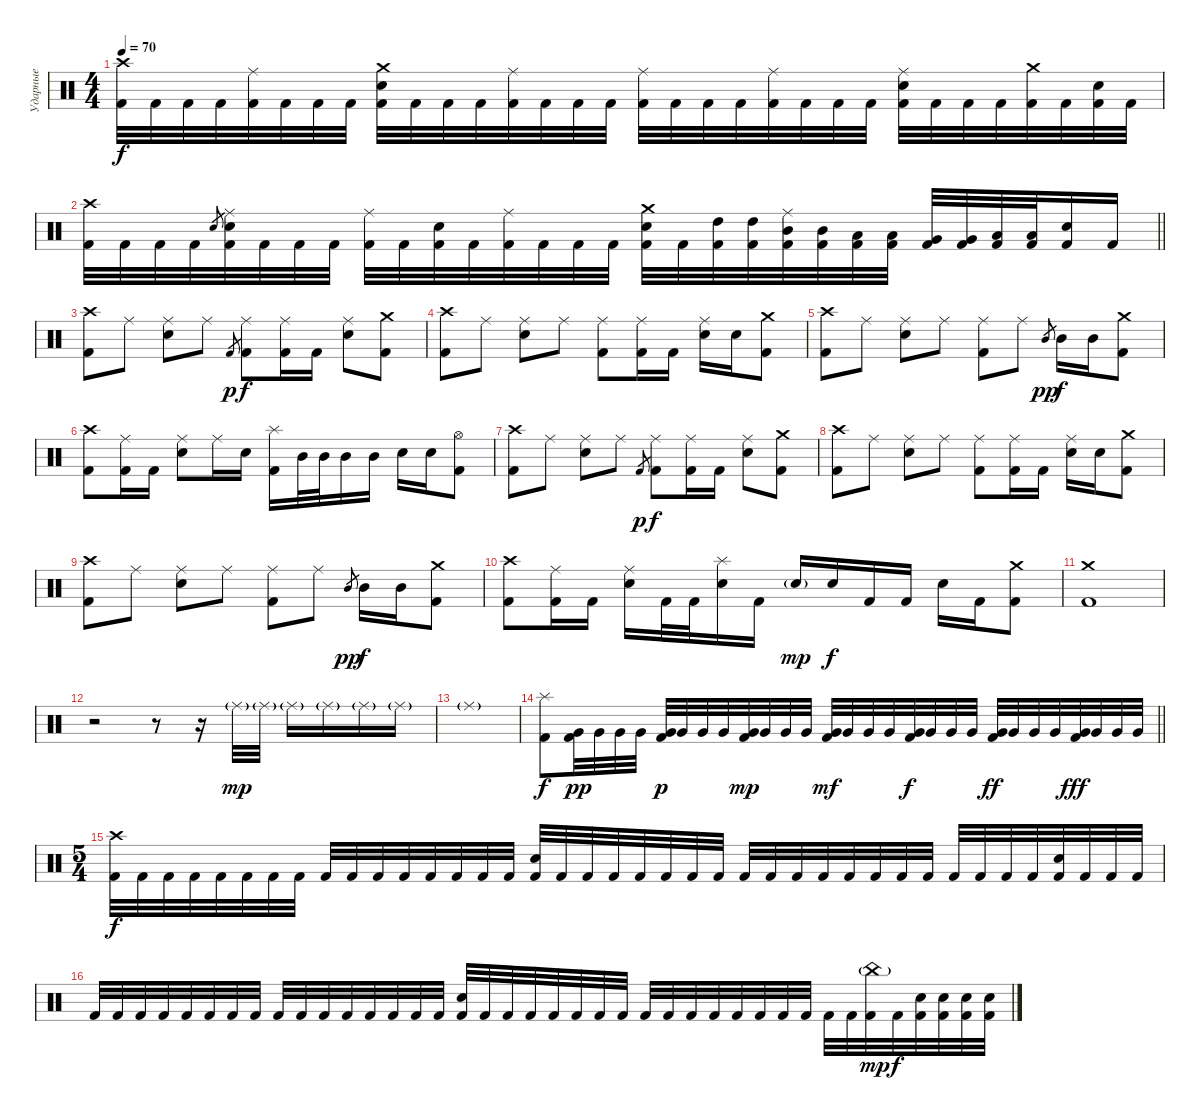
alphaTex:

\track ("Ударные" "Ударные") {instrument percussion}
\staff {score}
\articulation defaults
\ts (4 4)
\tempo 70
\clef neutral
\ks c
("Kick (hit) 2" "Crash high (hit)").32{dy f} "Kick (hit) 2".32 "Kick (hit) 2".32 "Kick (hit) 2".32 ("Kick (hit) 2" "Ride (middle)").32 "Kick (hit) 2".32 "Kick (hit) 2".32 "Kick (hit) 2".32 ("Kick (hit) 2" "Electric Snare (hit)" "Crash medium (hit)").32 "Kick (hit) 2".32 "Kick (hit) 2".32 "Kick (hit) 2".32 ("Kick (hit) 2" "Ride (middle)").32 "Kick (hit) 2".32 "Kick (hit) 2".32 "Kick (hit) 2".32 ("Kick (hit) 2" "Ride (middle)").32 "Kick (hit) 2".32 "Kick (hit) 2".32 "Kick (hit) 2".32 ("Kick (hit) 2" "Ride (middle)").32 "Kick (hit) 2".32 "Kick (hit) 2".32 "Kick (hit) 2".32 ("Kick (hit) 2" "Electric Snare (hit)" "Ride (middle)").32 "Kick (hit) 2".32 "Kick (hit) 2".32 "Kick (hit) 2".32 ("Kick (hit) 2" "Crash medium (hit)").32 "Kick (hit) 2".32 ("Kick (hit) 2" "Electric Snare (hit)").32 "Kick (hit) 2".32 |
\barLineRight lightlight
("Kick (hit) 2" "Crash high (hit)").32 "Kick (hit) 2".32 "Kick (hit) 2".32 "Kick (hit) 2".32 "Electric Snare (hit)".8{gr} ("Kick (hit) 2" "Electric Snare (hit)" "Ride (middle)").32 "Kick (hit) 2".32 "Kick (hit) 2".32 "Kick (hit) 2".32 ("Kick (hit) 2" "Ride (middle)").32 "Kick (hit) 2".32 ("Kick (hit) 2" "Electric Snare (hit)").32 "Kick (hit) 2".32 ("Kick (hit) 2" "Ride (middle)").32 "Kick (hit) 2".32 "Kick (hit) 2".32 "Kick (hit) 2".32 ("Kick (hit) 2" "Electric Snare (hit)" "Crash medium (hit)").32 "Kick (hit) 2".32 ("Kick (hit) 2" "High Tom (hit)").32 ("Kick (hit) 2" "High Tom (hit)").32 ("Kick (hit) 2" "Mid Tom (hit)" "Ride (middle)").32 ("Kick (hit) 2" "Mid Tom (hit)").32 ("Kick (hit) 2" "Low Tom (hit)").32 ("Kick (hit) 2" "Low Tom (hit)").32 ("Kick (hit) 2" "Very Low Tom (hit)").32 ("Kick (hit) 2" "Very Low Tom (hit)").32 ("Kick (hit) 2" "Low Floor Tom (hit)").32 ("Kick (hit) 2" "Low Floor Tom (hit)").32 ("Kick (hit) 2" "Electric Snare (hit)").16 "Kick (hit) 2".16 |
\section ("" "")
("Kick (hit) 2" "Crash high (hit)").8 "Ride (middle)".8 ("Electric Snare (hit)" "Ride (middle)").8 "Ride (middle)".8 "Kick (hit) 2".8{gr dy p} ("Kick (hit) 2" "Ride (middle)").8{dy f} ("Ride (middle)" "Kick (hit) 2").16 "Kick (hit) 2".16 ("Ride (middle)" "Electric Snare (hit)").8 ("Kick (hit) 2" "Crash medium (hit)").8 |
("Kick (hit) 2" "Crash high (hit)").8 "Ride (middle)".8 ("Electric Snare (hit)" "Ride (middle)").8 "Ride (middle)".8 ("Kick (hit) 2" "Ride (middle)").8 ("Ride (middle)" "Kick (hit) 2").16 "Kick (hit) 2".16 ("Ride (middle)" "Electric Snare (hit)").16 "Electric Snare (hit)".16 ("Kick (hit) 2" "Crash medium (hit)").8 |
("Kick (hit) 2" "Crash high (hit)").8 "Ride (middle)".8 ("Ride (middle)" "Electric Snare (hit)").8 "Ride (middle)".8 ("Ride (middle)" "Kick (hit) 2").8 "Ride (middle)".8 "Mid Tom (hit)".8{gr dy pp} "Mid Tom (hit)".16{dy f} "Mid Tom (hit)".16 ("Kick (hit) 2" "Crash medium (hit)").8 |
("Kick (hit) 2" "Crash high (hit)").8 ("Ride (middle)" "Kick (hit) 2").16 "Kick (hit) 2".16 ("Electric Snare (hit)" "Ride (middle)").8 "Ride (middle)".16 "Electric Snare (hit)".16 ("Kick (hit) 2" "Splash (hit)").16 "Mid Tom (hit)".32 "Mid Tom (hit)".32 "Mid Tom (hit)".16 "Mid Tom (hit)".16 "Electric Snare (hit)".16 "Electric Snare (hit)".16 ("Kick (hit) 2" "Hi-Hat (open)").8 |
("Kick (hit) 2" "Crash high (hit)").8 "Ride (middle)".8 ("Electric Snare (hit)" "Ride (middle)").8 "Ride (middle)".8 "Kick (hit) 2".8{gr dy p} ("Kick (hit) 2" "Ride (middle)").8{dy f} ("Ride (middle)" "Kick (hit) 2").16 "Kick (hit) 2".16 ("Ride (middle)" "Electric Snare (hit)").8 ("Kick (hit) 2" "Crash medium (hit)").8 |
("Kick (hit) 2" "Crash high (hit)").8 "Ride (middle)".8 ("Electric Snare (hit)" "Ride (middle)").8 "Ride (middle)".8 ("Kick (hit) 2" "Ride (middle)").8 ("Ride (middle)" "Kick (hit) 2").16 "Kick (hit) 2".16 ("Ride (middle)" "Electric Snare (hit)").16 "Electric Snare (hit)".16 ("Kick (hit) 2" "Crash medium (hit)").8 |
("Kick (hit) 2" "Crash high (hit)").8 "Ride (middle)".8 ("Ride (middle)" "Electric Snare (hit)").8 "Ride (middle)".8 ("Ride (middle)" "Kick (hit) 2").8 "Ride (middle)".8 "Mid Tom (hit)".8{gr dy pp} "Mid Tom (hit)".16{dy f} "Mid Tom (hit)".16 ("Kick (hit) 2" "Crash medium (hit)").8 |
("Kick (hit) 2" "Crash high (hit)").8 ("Ride (middle)" "Kick (hit) 2").16 "Kick (hit) 2".16 ("Electric Snare (hit)" "Ride (middle)").16 "Kick (hit) 2".32 "Kick (hit) 2".32 ("Electric Snare (hit)" "Splash (hit)").16 "Kick (hit) 2".16 "Electric Snare (hit)"{g}.16{dy mp} "Electric Snare (hit)".16{dy f} "Kick (hit) 2".16 "Kick (hit) 2".16 "Electric Snare (hit)".16 "Kick (hit) 2".16 ("Kick (hit) 2" "Crash medium (hit)").8 |
("Kick (hit) 2" "Crash medium (hit)").1 |
r.2 r.8 r.16 "Ride (middle)"{g}.32{dy mp} "Ride (middle)"{g}.32 "Ride (middle)"{g}.16 "Ride (middle)"{g}.16 "Ride (middle)"{g}.16 "Ride (middle)"{g}.16 |
"Ride (middle)"{g}.1 |
\barLineRight lightlight
("Kick (hit) 2" "Splash (hit)").8{dy f} ("Very Low Tom (hit)" "Kick (hit) 2").32{dy pp} "Very Low Tom (hit)".32 "Very Low Tom (hit)".32 "Very Low Tom (hit)".32 ("Very Low Tom (hit)" "Kick (hit) 2").32{dy p} "Very Low Tom (hit)".32 "Very Low Tom (hit)".32 "Very Low Tom (hit)".32 ("Very Low Tom (hit)" "Kick (hit) 2").32{dy mp} "Very Low Tom (hit)".32 "Very Low Tom (hit)".32 "Very Low Tom (hit)".32 ("Very Low Tom (hit)" "Kick (hit) 2").32{dy mf} "Very Low Tom (hit)".32 "Very Low Tom (hit)".32 "Very Low Tom (hit)".32 ("Very Low Tom (hit)" "Kick (hit) 2").32{dy f} "Very Low Tom (hit)".32 "Very Low Tom (hit)".32 "Very Low Tom (hit)".32 ("Very Low Tom (hit)" "Kick (hit) 2").32{dy ff} "Very Low Tom (hit)".32 "Very Low Tom (hit)".32 "Very Low Tom (hit)".32 ("Very Low Tom (hit)" "Kick (hit) 2").32{dy fff} "Very Low Tom (hit)".32 "Very Low Tom (hit)".32 "Very Low Tom (hit)".32 |
\ts (5 4)
\section ("" "")
("Kick (hit) 2" "Crash high (hit)").32{dy f} "Kick (hit) 2".32 "Kick (hit) 2".32 "Kick (hit) 2".32 "Kick (hit) 2".32 "Kick (hit) 2".32 "Kick (hit) 2".32 "Kick (hit) 2".32 "Kick (hit) 2".32 "Kick (hit) 2".32 "Kick (hit) 2".32 "Kick (hit) 2".32 "Kick (hit) 2".32 "Kick (hit) 2".32 "Kick (hit) 2".32 "Kick (hit) 2".32 ("Kick (hit) 2" "Electric Snare (hit)").32 "Kick (hit) 2".32 "Kick (hit) 2".32 "Kick (hit) 2".32 "Kick (hit) 2".32 "Kick (hit) 2".32 "Kick (hit) 2".32 "Kick (hit) 2".32 "Kick (hit) 2".32 "Kick (hit) 2".32 "Kick (hit) 2".32 "Kick (hit) 2".32 "Kick (hit) 2".32 "Kick (hit) 2".32 "Kick (hit) 2".32 "Kick (hit) 2".32 "Kick (hit) 2".32 "Kick (hit) 2".32 "Kick (hit) 2".32 "Kick (hit) 2".32 ("Kick (hit) 2" "Electric Snare (hit)").32 "Kick (hit) 2".32 "Kick (hit) 2".32 "Kick (hit) 2".32 |
"Kick (hit) 2".32 "Kick (hit) 2".32 "Kick (hit) 2".32 "Kick (hit) 2".32 "Kick (hit) 2".32 "Kick (hit) 2".32 "Kick (hit) 2".32 "Kick (hit) 2".32 "Kick (hit) 2".32 "Kick (hit) 2".32 "Kick (hit) 2".32 "Kick (hit) 2".32 "Kick (hit) 2".32 "Kick (hit) 2".32 "Kick (hit) 2".32 "Kick (hit) 2".32 ("Kick (hit) 2" "Electric Snare (hit)").32 "Kick (hit) 2".32 "Kick (hit) 2".32 "Kick (hit) 2".32 "Kick (hit) 2".32 "Kick (hit) 2".32 "Kick (hit) 2".32 "Kick (hit) 2".32 "Kick (hit) 2".32 "Kick (hit) 2".32 "Kick (hit) 2".32 "Kick (hit) 2".32 "Kick (hit) 2".32 "Kick (hit) 2".32 "Kick (hit) 2".32 "Kick (hit) 2".32 "Kick (hit) 2".32 "Kick (hit) 2".32 ("Kick (hit) 2" "China (hit)"{g}).32{dy mp} "Kick (hit) 2".32{dy f} ("Kick (hit) 2" "Electric Snare (hit)").32 ("Kick (hit) 2" "Electric Snare (hit)").32 ("Kick (hit) 2" "Electric Snare (hit)").32 ("Kick (hit) 2" "Electric Snare (hit)").32
